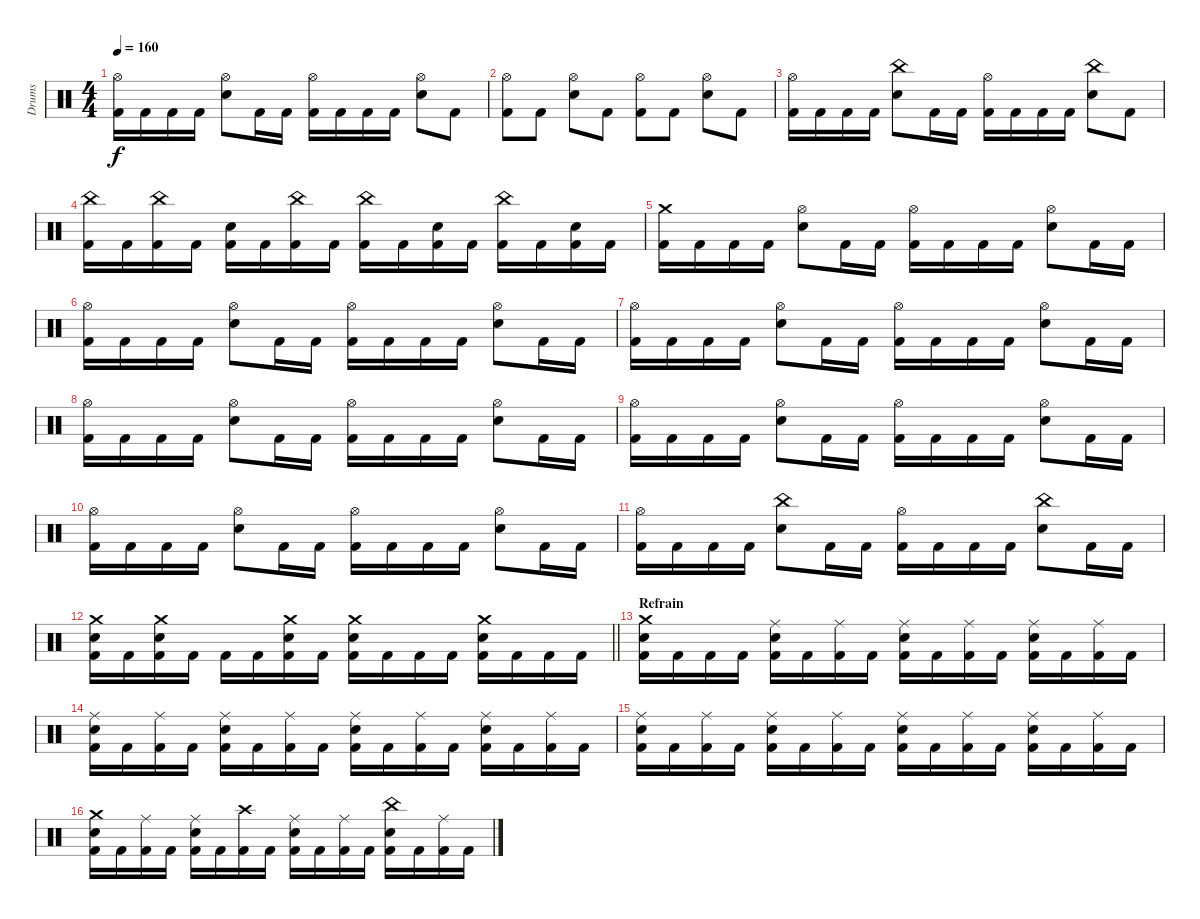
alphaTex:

\track ("Drums" "Drums") {instrument percussion}
\staff {score}
\articulation defaults
\ts (4 4)
\tempo 160
\clef neutral
\ks c
("Hi-Hat (open)" "Kick (hit) 2").16{dy f} "Kick (hit) 2".16 "Kick (hit) 2".16 "Kick (hit) 2".16 ("Hi-Hat (open)" "Snare (hit) 2").8 "Kick (hit) 2".16 "Kick (hit) 2".16 ("Hi-Hat (open)" "Kick (hit) 2").16 "Kick (hit) 2".16 "Kick (hit) 2".16 "Kick (hit) 2".16 ("Hi-Hat (open)" "Snare (hit) 2").8 "Kick (hit) 2".8 |
("Hi-Hat (open)" "Kick (hit) 2").8 "Kick (hit) 2".8 ("Hi-Hat (open)" "Snare (hit) 2").8 "Kick (hit) 2".8 ("Hi-Hat (open)" "Kick (hit) 2").8 "Kick (hit) 2".8 ("Hi-Hat (open)" "Snare (hit) 2").8 "Kick (hit) 2".8 |
("Hi-Hat (open)" "Kick (hit) 2").16 "Kick (hit) 2".16 "Kick (hit) 2".16 "Kick (hit) 2".16 ("China (hit)" "Snare (hit) 2").8 "Kick (hit) 2".16 "Kick (hit) 2".16 ("Hi-Hat (open)" "Kick (hit) 2").16 "Kick (hit) 2".16 "Kick (hit) 2".16 "Kick (hit) 2".16 ("China (hit)" "Snare (hit) 2").8 "Kick (hit) 2".8 |
("China (hit)" "Kick (hit) 2").16 "Kick (hit) 2".16 ("China (hit)" "Kick (hit) 2").16 "Kick (hit) 2".16 ("Snare (hit) 2" "Kick (hit) 2").16 "Kick (hit) 2".16 ("China (hit)" "Kick (hit) 2").16 "Kick (hit) 2".16 ("China (hit)" "Kick (hit) 2").16 "Kick (hit) 2".16 ("Snare (hit) 2" "Kick (hit) 2").16 "Kick (hit) 2".16 ("China (hit)" "Kick (hit) 2").16 "Kick (hit) 2".16 ("Snare (hit) 2" "Kick (hit) 2").16 "Kick (hit) 2".16 |
("Crash medium (hit)" "Kick (hit) 2").16 "Kick (hit) 2".16 "Kick (hit) 2".16 "Kick (hit) 2".16 ("Hi-Hat (open)" "Snare (hit) 2").8 "Kick (hit) 2".16 "Kick (hit) 2".16 ("Hi-Hat (open)" "Kick (hit) 2").16 "Kick (hit) 2".16 "Kick (hit) 2".16 "Kick (hit) 2".16 ("Hi-Hat (open)" "Snare (hit) 2").8 "Kick (hit) 2".16 "Kick (hit) 2".16 |
("Hi-Hat (open)" "Kick (hit) 2").16 "Kick (hit) 2".16 "Kick (hit) 2".16 "Kick (hit) 2".16 ("Hi-Hat (open)" "Snare (hit) 2").8 "Kick (hit) 2".16 "Kick (hit) 2".16 ("Hi-Hat (open)" "Kick (hit) 2").16 "Kick (hit) 2".16 "Kick (hit) 2".16 "Kick (hit) 2".16 ("Hi-Hat (open)" "Snare (hit) 2").8 "Kick (hit) 2".16 "Kick (hit) 2".16 |
("Hi-Hat (open)" "Kick (hit) 2").16 "Kick (hit) 2".16 "Kick (hit) 2".16 "Kick (hit) 2".16 ("Hi-Hat (open)" "Snare (hit) 2").8 "Kick (hit) 2".16 "Kick (hit) 2".16 ("Hi-Hat (open)" "Kick (hit) 2").16 "Kick (hit) 2".16 "Kick (hit) 2".16 "Kick (hit) 2".16 ("Hi-Hat (open)" "Snare (hit) 2").8 "Kick (hit) 2".16 "Kick (hit) 2".16 |
("Hi-Hat (open)" "Kick (hit) 2").16 "Kick (hit) 2".16 "Kick (hit) 2".16 "Kick (hit) 2".16 ("Hi-Hat (open)" "Snare (hit) 2").8 "Kick (hit) 2".16 "Kick (hit) 2".16 ("Hi-Hat (open)" "Kick (hit) 2").16 "Kick (hit) 2".16 "Kick (hit) 2".16 "Kick (hit) 2".16 ("Hi-Hat (open)" "Snare (hit) 2").8 "Kick (hit) 2".16 "Kick (hit) 2".16 |
("Hi-Hat (open)" "Kick (hit) 2").16 "Kick (hit) 2".16 "Kick (hit) 2".16 "Kick (hit) 2".16 ("Hi-Hat (open)" "Snare (hit) 2").8 "Kick (hit) 2".16 "Kick (hit) 2".16 ("Hi-Hat (open)" "Kick (hit) 2").16 "Kick (hit) 2".16 "Kick (hit) 2".16 "Kick (hit) 2".16 ("Hi-Hat (open)" "Snare (hit) 2").8 "Kick (hit) 2".16 "Kick (hit) 2".16 |
("Hi-Hat (open)" "Kick (hit) 2").16 "Kick (hit) 2".16 "Kick (hit) 2".16 "Kick (hit) 2".16 ("Hi-Hat (open)" "Snare (hit) 2").8 "Kick (hit) 2".16 "Kick (hit) 2".16 ("Hi-Hat (open)" "Kick (hit) 2").16 "Kick (hit) 2".16 "Kick (hit) 2".16 "Kick (hit) 2".16 ("Hi-Hat (open)" "Snare (hit) 2").8 "Kick (hit) 2".16 "Kick (hit) 2".16 |
("Hi-Hat (open)" "Kick (hit) 2").16 "Kick (hit) 2".16 "Kick (hit) 2".16 "Kick (hit) 2".16 ("China (hit)" "Snare (hit) 2").8 "Kick (hit) 2".16 "Kick (hit) 2".16 ("Hi-Hat (open)" "Kick (hit) 2").16 "Kick (hit) 2".16 "Kick (hit) 2".16 "Kick (hit) 2".16 ("China (hit)" "Snare (hit) 2").8 "Kick (hit) 2".16 "Kick (hit) 2".16 |
\barLineRight lightlight
("Crash medium (hit)" "Snare (hit) 2" "Kick (hit) 2").16 "Kick (hit) 2".16 ("Crash medium (hit)" "Snare (hit) 2" "Kick (hit) 2").16 "Kick (hit) 2".16 "Kick (hit) 2".16 "Kick (hit) 2".16 ("Crash medium (hit)" "Snare (hit) 2" "Kick (hit) 2").16 "Kick (hit) 2".16 ("Crash medium (hit)" "Snare (hit) 2" "Kick (hit) 2").16 "Kick (hit) 2".16 "Kick (hit) 2".16 "Kick (hit) 2".16 ("Crash medium (hit)" "Snare (hit) 2" "Kick (hit) 2").16 "Kick (hit) 2".16 "Kick (hit) 2".16 "Kick (hit) 2".16 |
\section ("" "Refrain")
("Crash medium (hit)" "Snare (hit) 2" "Kick (hit) 2").16 "Kick (hit) 2".16 "Kick (hit) 2".16 "Kick (hit) 2".16 ("Ride (middle)" "Snare (hit) 2" "Kick (hit) 2").16 "Kick (hit) 2".16 ("Ride (middle)" "Kick (hit) 2").16 "Kick (hit) 2".16 ("Ride (middle)" "Snare (hit) 2" "Kick (hit) 2").16 "Kick (hit) 2".16 ("Ride (middle)" "Kick (hit) 2").16 "Kick (hit) 2".16 ("Ride (middle)" "Snare (hit) 2" "Kick (hit) 2").16 "Kick (hit) 2".16 ("Ride (middle)" "Kick (hit) 2").16 "Kick (hit) 2".16 |
("Ride (middle)" "Snare (hit) 2" "Kick (hit) 2").16 "Kick (hit) 2".16 ("Ride (middle)" "Kick (hit) 2").16 "Kick (hit) 2".16 ("Ride (middle)" "Snare (hit) 2" "Kick (hit) 2").16 "Kick (hit) 2".16 ("Ride (middle)" "Kick (hit) 2").16 "Kick (hit) 2".16 ("Ride (middle)" "Snare (hit) 2" "Kick (hit) 2").16 "Kick (hit) 2".16 ("Ride (middle)" "Kick (hit) 2").16 "Kick (hit) 2".16 ("Ride (middle)" "Snare (hit) 2" "Kick (hit) 2").16 "Kick (hit) 2".16 ("Ride (middle)" "Kick (hit) 2").16 "Kick (hit) 2".16 |
("Ride (middle)" "Snare (hit) 2" "Kick (hit) 2").16 "Kick (hit) 2".16 ("Ride (middle)" "Kick (hit) 2").16 "Kick (hit) 2".16 ("Ride (middle)" "Snare (hit) 2" "Kick (hit) 2").16 "Kick (hit) 2".16 ("Ride (middle)" "Kick (hit) 2").16 "Kick (hit) 2".16 ("Ride (middle)" "Snare (hit) 2" "Kick (hit) 2").16 "Kick (hit) 2".16 ("Ride (middle)" "Kick (hit) 2").16 "Kick (hit) 2".16 ("Ride (middle)" "Snare (hit) 2" "Kick (hit) 2").16 "Kick (hit) 2".16 ("Ride (middle)" "Kick (hit) 2").16 "Kick (hit) 2".16 |
("Crash medium (hit)" "Snare (hit) 2" "Kick (hit) 2").16 "Kick (hit) 2".16 ("Ride (middle)" "Kick (hit) 2").16 "Kick (hit) 2".16 ("Ride (middle)" "Snare (hit) 2" "Kick (hit) 2").16 "Kick (hit) 2".16 ("Crash high (hit)" "Kick (hit) 2").16 "Kick (hit) 2".16 ("Ride (middle)" "Snare (hit) 2" "Kick (hit) 2").16 "Kick (hit) 2".16 ("Ride (middle)" "Kick (hit) 2").16 "Kick (hit) 2".16 ("China (hit)" "Snare (hit) 2" "Kick (hit) 2").16 "Kick (hit) 2".16 ("Ride (middle)" "Kick (hit) 2").16 "Kick (hit) 2".16
